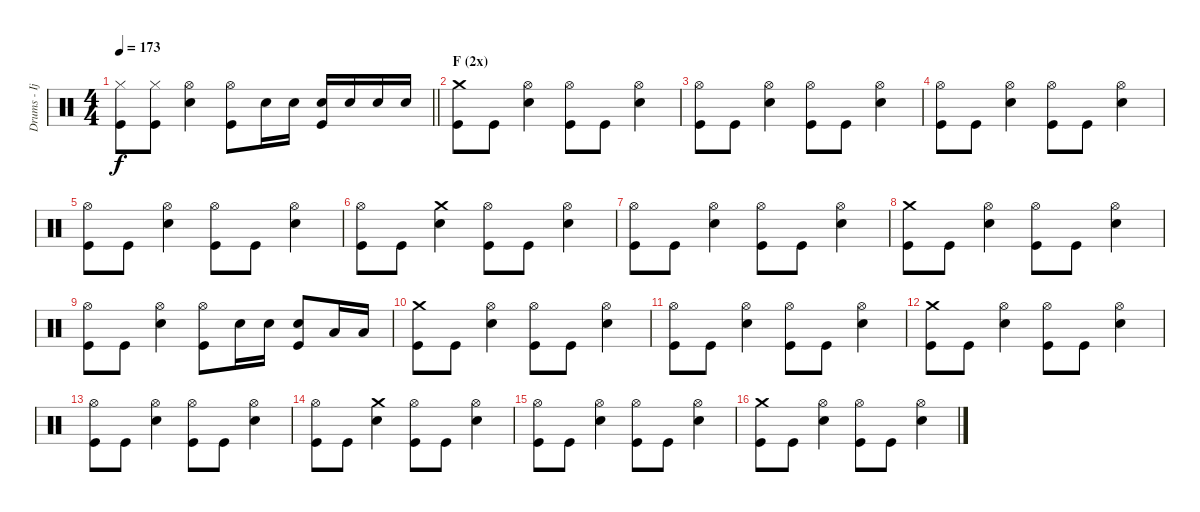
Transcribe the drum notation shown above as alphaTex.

\track ("Drums - Ijichi" "Drums - Ij") {instrument percussion}
\staff {score}
\articulation defaults
\ts (4 4)
\tempo 173
\clef neutral
\barLineRight lightlight
\ks c
("Hi-Hat (closed)" "Kick (hit)").8{dy f} ("Hi-Hat (closed)" "Kick (hit)").8 ("Hi-Hat (open)" "Electric Snare (hit)").4 ("Hi-Hat (open)" "Kick (hit)").8 "Electric Snare (hit)".16 "Electric Snare (hit)".16 ("Electric Snare (hit)" "Kick (hit)").16 "Electric Snare (hit)".16 "Electric Snare (hit)".16 "Electric Snare (hit)".16 |
\section ("" "F (2x)")
("Crash medium (hit)" "Kick (hit)").8 "Kick (hit)".8 ("Hi-Hat (open)" "Electric Snare (hit)").4 ("Hi-Hat (open)" "Kick (hit)").8 "Kick (hit)".8 ("Hi-Hat (open)" "Electric Snare (hit)").4 |
("Hi-Hat (open)" "Kick (hit)").8 "Kick (hit)".8 ("Hi-Hat (open)" "Electric Snare (hit)").4 ("Hi-Hat (open)" "Kick (hit)").8 "Kick (hit)".8 ("Hi-Hat (open)" "Electric Snare (hit)").4 |
("Hi-Hat (open)" "Kick (hit)").8 "Kick (hit)".8 ("Hi-Hat (open)" "Electric Snare (hit)").4 ("Hi-Hat (open)" "Kick (hit)").8 "Kick (hit)".8 ("Hi-Hat (open)" "Electric Snare (hit)").4 |
("Hi-Hat (open)" "Kick (hit)").8 "Kick (hit)".8 ("Hi-Hat (open)" "Electric Snare (hit)").4 ("Hi-Hat (open)" "Kick (hit)").8 "Kick (hit)".8 ("Hi-Hat (open)" "Electric Snare (hit)").4 |
("Hi-Hat (open)" "Kick (hit)").8 "Kick (hit)".8 ("Crash medium (hit)" "Electric Snare (hit)").4 ("Hi-Hat (open)" "Kick (hit)").8 "Kick (hit)".8 ("Hi-Hat (open)" "Electric Snare (hit)").4 |
("Hi-Hat (open)" "Kick (hit)").8 "Kick (hit)".8 ("Hi-Hat (open)" "Electric Snare (hit)").4 ("Hi-Hat (open)" "Kick (hit)").8 "Kick (hit)".8 ("Hi-Hat (open)" "Electric Snare (hit)").4 |
("Crash medium (hit)" "Kick (hit)").8 "Kick (hit)".8 ("Hi-Hat (open)" "Electric Snare (hit)").4 ("Hi-Hat (open)" "Kick (hit)").8 "Kick (hit)".8 ("Hi-Hat (open)" "Electric Snare (hit)").4 |
("Hi-Hat (open)" "Kick (hit)").8 "Kick (hit)".8 ("Hi-Hat (open)" "Electric Snare (hit)").4 ("Hi-Hat (open)" "Kick (hit)").8 "Electric Snare (hit)".16 "Electric Snare (hit)".16 ("Electric Snare (hit)" "Kick (hit)").8 "Low Tom (hit)".16 "Low Tom (hit)".16 |
("Crash medium (hit)" "Kick (hit)").8 "Kick (hit)".8 ("Hi-Hat (open)" "Electric Snare (hit)").4 ("Hi-Hat (open)" "Kick (hit)").8 "Kick (hit)".8 ("Hi-Hat (open)" "Electric Snare (hit)").4 |
("Hi-Hat (open)" "Kick (hit)").8 "Kick (hit)".8 ("Hi-Hat (open)" "Electric Snare (hit)").4 ("Hi-Hat (open)" "Kick (hit)").8 "Kick (hit)".8 ("Hi-Hat (open)" "Electric Snare (hit)").4 |
("Crash medium (hit)" "Kick (hit)").8 "Kick (hit)".8 ("Hi-Hat (open)" "Electric Snare (hit)").4 ("Hi-Hat (open)" "Kick (hit)").8 "Kick (hit)".8 ("Hi-Hat (open)" "Electric Snare (hit)").4 |
("Hi-Hat (open)" "Kick (hit)").8 "Kick (hit)".8 ("Hi-Hat (open)" "Electric Snare (hit)").4 ("Hi-Hat (open)" "Kick (hit)").8 "Kick (hit)".8 ("Hi-Hat (open)" "Electric Snare (hit)").4 |
("Hi-Hat (open)" "Kick (hit)").8 "Kick (hit)".8 ("Crash medium (hit)" "Electric Snare (hit)").4 ("Hi-Hat (open)" "Kick (hit)").8 "Kick (hit)".8 ("Hi-Hat (open)" "Electric Snare (hit)").4 |
("Hi-Hat (open)" "Kick (hit)").8 "Kick (hit)".8 ("Hi-Hat (open)" "Electric Snare (hit)").4 ("Hi-Hat (open)" "Kick (hit)").8 "Kick (hit)".8 ("Hi-Hat (open)" "Electric Snare (hit)").4 |
("Crash medium (hit)" "Kick (hit)").8 "Kick (hit)".8 ("Hi-Hat (open)" "Electric Snare (hit)").4 ("Hi-Hat (open)" "Kick (hit)").8 "Kick (hit)".8 ("Hi-Hat (open)" "Electric Snare (hit)").4
